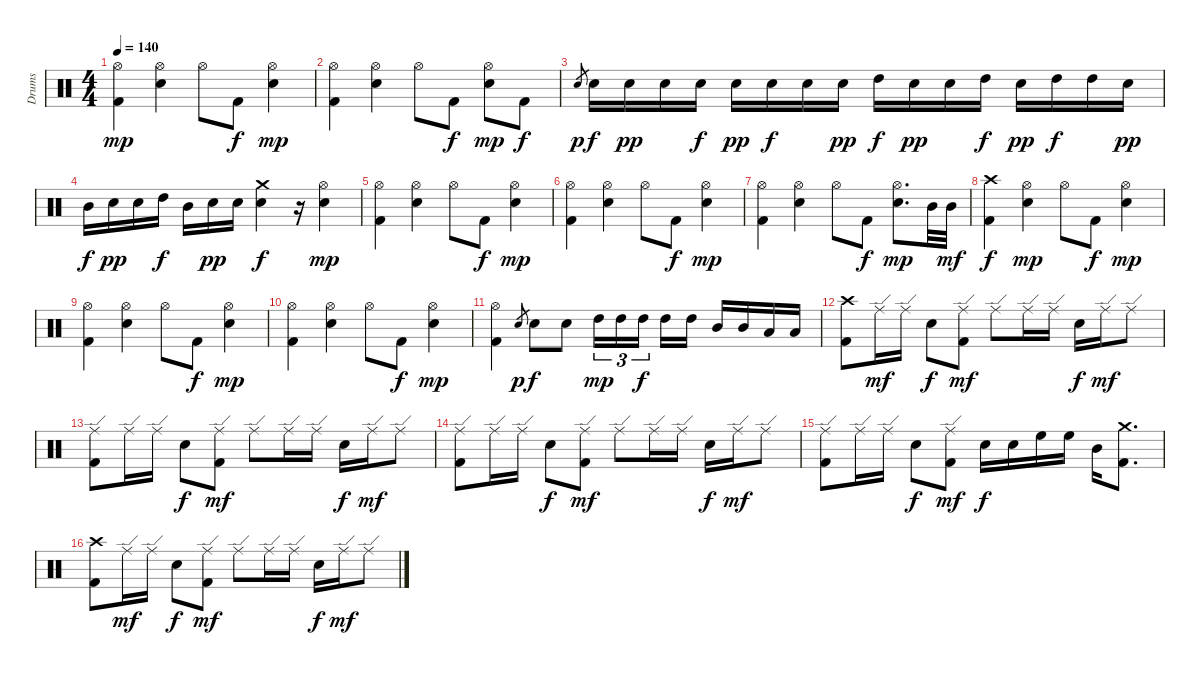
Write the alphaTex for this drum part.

\bracketExtendMode groupsimilarinstruments
\otherSystemsTrackNameOrientation horizontal
\track ("Drumkit" "Drums") {instrument percussion}
\staff {score}
\articulation defaults
\ts (4 4)
\tempo 140
\clef neutral
\ks c
("Hi-Hat (open)" "Kick (hit) 2").4{dy mp beam Down} ("Hi-Hat (open)" "Snare (hit) 2").4{beam Down} "Hi-Hat (open)".8{beam Down} "Kick (hit) 2".8{dy f beam Down} ("Hi-Hat (open)" "Snare (hit) 2").4{dy mp beam Down} |
("Hi-Hat (open)" "Kick (hit) 2").4{beam Down} ("Hi-Hat (open)" "Snare (hit) 2").4{beam Down} "Hi-Hat (open)".8{beam Down} "Kick (hit) 2".8{dy f beam Down} ("Hi-Hat (open)" "Snare (hit) 2").8{dy mp beam Down} "Kick (hit) 2".8{dy f beam Down} |
"Snare (hit) 2".8{gr dy p beam Up} "Snare (hit) 2".16{dy f beam Down} "Snare (hit) 2".16{dy pp beam Down} "Snare (hit) 2".16{beam Down} "Snare (hit) 2".16{dy f beam Down} "Snare (hit) 2".16{dy pp beam Down} "Snare (hit) 2".16{dy f beam Down} "Snare (hit) 2".16{beam Down} "Snare (hit) 2".16{dy pp beam Down} "High Tom (hit)".16{dy f beam Down} "Snare (hit) 2".16{dy pp beam Down} "Snare (hit) 2".16{beam Down} "High Tom (hit)".16{dy f beam Down} "Snare (hit) 2".16{dy pp beam Down} "High Tom (hit)".16{dy f beam Down} "High Tom (hit)".16{beam Down} "Snare (hit) 2".16{dy pp beam Down} |
"Mid Tom (hit)".16{dy f beam Down} "Snare (hit) 2".16{dy pp beam Down} "Snare (hit) 2".16{beam Down} "High Tom (hit)".16{dy f beam Down} "Mid Tom (hit)".16{beam Down} "Snare (hit) 2".16{dy pp beam Down} "Snare (hit) 2".16{beam Down} ("Crash medium (hit)" "Snare (hit) 2").4{dy f beam Down} r.16{beam Down} ("Hi-Hat (open)" "Snare (hit) 2").4{dy mp beam Down} |
("Hi-Hat (open)" "Kick (hit) 2").4{beam Down} ("Hi-Hat (open)" "Snare (hit) 2").4{beam Down} "Hi-Hat (open)".8{beam Down} "Kick (hit) 2".8{dy f beam Down} ("Hi-Hat (open)" "Snare (hit) 2").4{dy mp beam Down} |
("Hi-Hat (open)" "Kick (hit) 2").4{beam Down} ("Hi-Hat (open)" "Snare (hit) 2").4{beam Down} "Hi-Hat (open)".8{beam Down} "Kick (hit) 2".8{dy f beam Down} ("Hi-Hat (open)" "Snare (hit) 2").4{dy mp beam Down} |
("Hi-Hat (open)" "Kick (hit) 2").4{beam Down} ("Hi-Hat (open)" "Snare (hit) 2").4{beam Down} "Hi-Hat (open)".8{beam Down} "Kick (hit) 2".8{dy f beam Down} ("Hi-Hat (open)" "Snare (hit) 2").8{d dy mp beam Down} "Mid Tom (hit)".32{beam Down} "Mid Tom (hit)".32{dy mf beam Down} |
("Crash high (hit)" "Kick (hit) 2").4{dy f beam Down} ("Hi-Hat (open)" "Snare (hit) 2").4{dy mp beam Down} "Hi-Hat (open)".8{beam Down} "Kick (hit) 2".8{dy f beam Down} ("Hi-Hat (open)" "Snare (hit) 2").4{dy mp beam Down} |
("Hi-Hat (open)" "Kick (hit) 2").4{beam Down} ("Hi-Hat (open)" "Snare (hit) 2").4{beam Down} "Hi-Hat (open)".8{beam Down} "Kick (hit) 2".8{dy f beam Down} ("Hi-Hat (open)" "Snare (hit) 2").4{dy mp beam Down} |
("Hi-Hat (open)" "Kick (hit) 2").4{beam Down} ("Hi-Hat (open)" "Snare (hit) 2").4{beam Down} "Hi-Hat (open)".8{beam Down} "Kick (hit) 2".8{dy f beam Down} ("Hi-Hat (open)" "Snare (hit) 2").4{dy mp beam Down} |
("Hi-Hat (open)" "Kick (hit) 2").4{beam Down} "Snare (hit) 2".8{gr dy p beam Up} "Snare (hit) 2".8{dy f beam Down} "Snare (hit) 2".8{beam Down} "High Tom (hit)".16{tu (3 2) dy mp beam Down} "High Tom (hit)".16{tu (3 2) beam Down} "High Tom (hit)".16{tu (3 2) dy f beam Down} "High Tom (hit)".16{beam Down} "High Tom (hit)".16{beam Down} "Mid Tom (hit)".16{beam Up} "Mid Tom (hit)".16{beam Up} "Low Tom (hit)".16{beam Up} "Low Tom (hit)".16{beam Up} |
("Crash high (hit)" "Kick (hit) 2").8{beam Down} "Ride (edge)".16{dy mf beam Down} "Ride (edge)".16{beam Down} "Snare (hit) 2".8{dy f beam Down} ("Ride (edge)" "Kick (hit) 2").8{dy mf beam Down} "Ride (edge)".8{beam Down} "Ride (edge)".16{beam Down} "Ride (edge)".16{beam Down} "Snare (hit) 2".16{dy f beam Down} "Ride (edge)".16{dy mf beam Down} "Ride (edge)".8{beam Down} |
("Ride (edge)" "Kick (hit) 2").8{beam Down} "Ride (edge)".16{beam Down} "Ride (edge)".16{beam Down} "Snare (hit) 2".8{dy f beam Down} ("Ride (edge)" "Kick (hit) 2").8{dy mf beam Down} "Ride (edge)".8{beam Down} "Ride (edge)".16{beam Down} "Ride (edge)".16{beam Down} "Snare (hit) 2".16{dy f beam Down} "Ride (edge)".16{dy mf beam Down} "Ride (edge)".8{beam Down} |
("Ride (edge)" "Kick (hit) 2").8{beam Down} "Ride (edge)".16{beam Down} "Ride (edge)".16{beam Down} "Snare (hit) 2".8{dy f beam Down} ("Ride (edge)" "Kick (hit) 2").8{dy mf beam Down} "Ride (edge)".8{beam Down} "Ride (edge)".16{beam Down} "Ride (edge)".16{beam Down} "Snare (hit) 2".16{dy f beam Down} "Ride (edge)".16{dy mf beam Down} "Ride (edge)".8{beam Down} |
("Ride (edge)" "Kick (hit) 2").8{beam Down} "Ride (edge)".16{beam Down} "Ride (edge)".16{beam Down} "Snare (hit) 2".8{dy f beam Down} ("Ride (edge)" "Kick (hit) 2").8{dy mf beam Down} "Snare (hit) 2".16{dy f beam Down} "Snare (hit) 2".16{beam Down} "High Floor Tom (hit)".16{beam Down} "High Floor Tom (hit)".16{beam Down} "Mid Tom (hit)".16{beam Down} ("Crash medium (hit)" "Kick (hit) 2").8{d beam Down} |
("Crash high (hit)" "Kick (hit) 2").8{beam Down} "Ride (edge)".16{dy mf beam Down} "Ride (edge)".16{beam Down} "Snare (hit) 2".8{dy f beam Down} ("Ride (edge)" "Kick (hit) 2").8{dy mf beam Down} "Ride (edge)".8{beam Down} "Ride (edge)".16{beam Down} "Ride (edge)".16{beam Down} "Snare (hit) 2".16{dy f beam Down} "Ride (edge)".16{dy mf beam Down} "Ride (edge)".8{beam Down}
